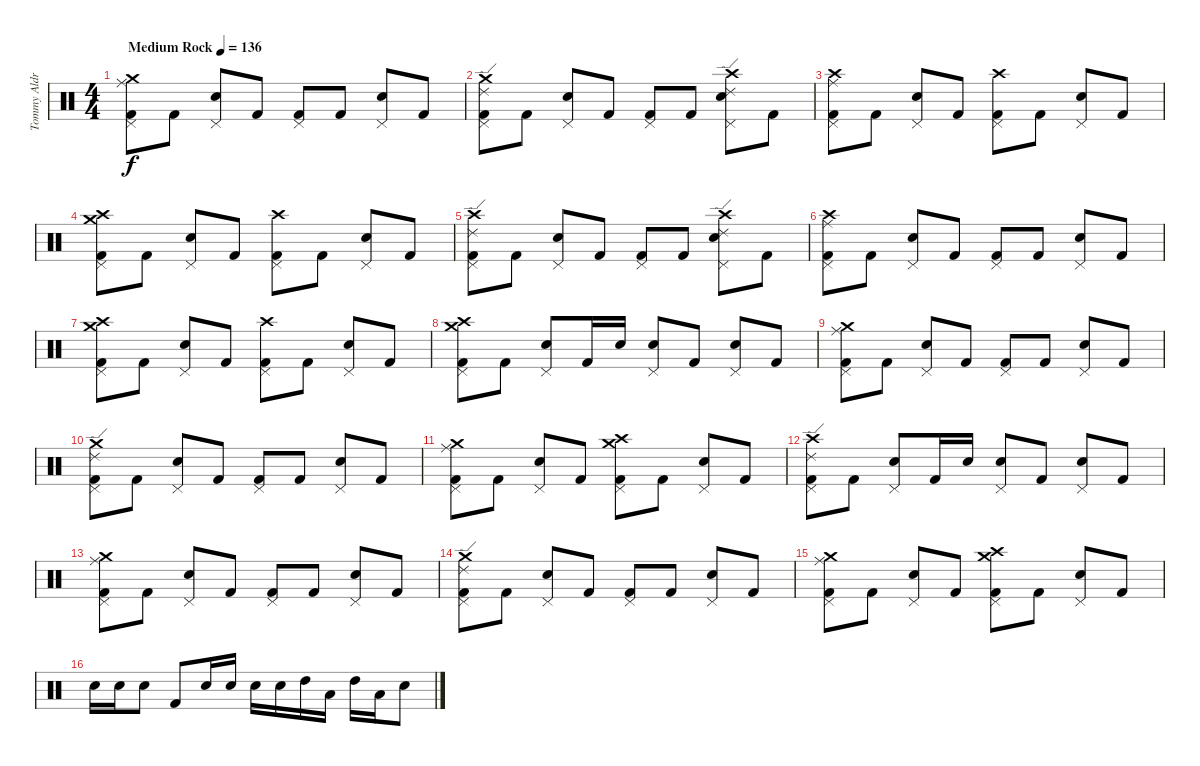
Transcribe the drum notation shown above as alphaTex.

\track ("Tommy Aldridge" "Tommy Aldr") {instrument percussion}
\staff {score}
\articulation defaults
\ts (4 4)
\tempo (136 "Medium Rock")
\clef neutral
\ks c
("Crash medium (hit)" "Ride (middle)" "Pedal Hi-Hat (hit)" "Kick (hit) 2").8{dy f} "Kick (hit) 2".8 ("Pedal Hi-Hat (hit)" "Snare (hit) 2").8 "Kick (hit) 2".8 ("Pedal Hi-Hat (hit)" "Kick (hit) 2").8 "Kick (hit) 2".8 ("Pedal Hi-Hat (hit)" "Snare (hit) 2").8 "Kick (hit) 2".8 |
("Crash medium (hit)" "Ride (edge) 2" "Pedal Hi-Hat (hit)" "Kick (hit) 2").8 "Kick (hit) 2".8 ("Pedal Hi-Hat (hit)" "Snare (hit) 2").8 "Kick (hit) 2".8 ("Pedal Hi-Hat (hit)" "Kick (hit) 2").8 "Kick (hit) 2".8 ("Ride (edge) 2" "Crash high (hit)" "Pedal Hi-Hat (hit)" "Snare (hit) 2").8 "Kick (hit) 2".8 |
("Ride (middle)" "Crash high (hit)" "Pedal Hi-Hat (hit)" "Kick (hit) 2").8 "Kick (hit) 2".8 ("Pedal Hi-Hat (hit)" "Snare (hit) 2").8 "Kick (hit) 2".8 ("Crash high (hit)" "Pedal Hi-Hat (hit)" "Kick (hit) 2").8 "Kick (hit) 2".8 ("Pedal Hi-Hat (hit)" "Snare (hit) 2").8 "Kick (hit) 2".8 |
("Crash medium (hit)" "Crash high (hit)" "Pedal Hi-Hat (hit)" "Kick (hit) 2").8 "Kick (hit) 2".8 ("Pedal Hi-Hat (hit)" "Snare (hit) 2").8 "Kick (hit) 2".8 ("Crash high (hit)" "Pedal Hi-Hat (hit)" "Kick (hit) 2").8 "Kick (hit) 2".8 ("Pedal Hi-Hat (hit)" "Snare (hit) 2").8 "Kick (hit) 2".8 |
("Ride (edge) 2" "Crash high (hit)" "Pedal Hi-Hat (hit)" "Kick (hit) 2").8 "Kick (hit) 2".8 ("Pedal Hi-Hat (hit)" "Snare (hit) 2").8 "Kick (hit) 2".8 ("Pedal Hi-Hat (hit)" "Kick (hit) 2").8 "Kick (hit) 2".8 ("Ride (edge) 2" "Crash high (hit)" "Pedal Hi-Hat (hit)" "Snare (hit) 2").8 "Kick (hit) 2".8 |
("Ride (middle)" "Crash high (hit)" "Pedal Hi-Hat (hit)" "Kick (hit) 2").8 "Kick (hit) 2".8 ("Pedal Hi-Hat (hit)" "Snare (hit) 2").8 "Kick (hit) 2".8 ("Pedal Hi-Hat (hit)" "Kick (hit) 2").8 "Kick (hit) 2".8 ("Pedal Hi-Hat (hit)" "Snare (hit) 2").8 "Kick (hit) 2".8 |
("Crash medium (hit)" "Crash high (hit)" "Pedal Hi-Hat (hit)" "Kick (hit) 2").8 "Kick (hit) 2".8 ("Pedal Hi-Hat (hit)" "Snare (hit) 2").8 "Kick (hit) 2".8 ("Crash high (hit)" "Pedal Hi-Hat (hit)" "Kick (hit) 2").8 "Kick (hit) 2".8 ("Pedal Hi-Hat (hit)" "Snare (hit) 2").8 "Kick (hit) 2".8 |
("Crash medium (hit)" "Crash high (hit)" "Pedal Hi-Hat (hit)" "Kick (hit) 2").8 "Kick (hit) 2".8 ("Pedal Hi-Hat (hit)" "Snare (hit) 2").8 "Kick (hit) 2".16 "Snare (hit) 2".16 ("Pedal Hi-Hat (hit)" "Snare (hit) 2").8 "Kick (hit) 2".8 ("Pedal Hi-Hat (hit)" "Snare (hit) 2").8 "Kick (hit) 2".8 |
("Crash medium (hit)" "Ride (middle)" "Pedal Hi-Hat (hit)" "Kick (hit) 2").8 "Kick (hit) 2".8 ("Pedal Hi-Hat (hit)" "Snare (hit) 2").8 "Kick (hit) 2".8 ("Pedal Hi-Hat (hit)" "Kick (hit) 2").8 "Kick (hit) 2".8 ("Pedal Hi-Hat (hit)" "Snare (hit) 2").8 "Kick (hit) 2".8 |
("Crash medium (hit)" "Ride (edge) 2" "Pedal Hi-Hat (hit)" "Kick (hit) 2").8 "Kick (hit) 2".8 ("Pedal Hi-Hat (hit)" "Snare (hit) 2").8 "Kick (hit) 2".8 ("Pedal Hi-Hat (hit)" "Kick (hit) 2").8 "Kick (hit) 2".8 ("Pedal Hi-Hat (hit)" "Snare (hit) 2").8 "Kick (hit) 2".8 |
("Crash medium (hit)" "Ride (middle)" "Pedal Hi-Hat (hit)" "Kick (hit) 2").8 "Kick (hit) 2".8 ("Pedal Hi-Hat (hit)" "Snare (hit) 2").8 "Kick (hit) 2".8 ("Crash medium (hit)" "Crash high (hit)" "Pedal Hi-Hat (hit)" "Kick (hit) 2").8 "Kick (hit) 2".8 ("Pedal Hi-Hat (hit)" "Snare (hit) 2").8 "Kick (hit) 2".8 |
("Ride (edge) 2" "Crash high (hit)" "Pedal Hi-Hat (hit)" "Kick (hit) 2").8 "Kick (hit) 2".8 ("Pedal Hi-Hat (hit)" "Snare (hit) 2").8 "Kick (hit) 2".16 "Snare (hit) 2".16 ("Pedal Hi-Hat (hit)" "Snare (hit) 2").8 "Kick (hit) 2".8 ("Pedal Hi-Hat (hit)" "Snare (hit) 2").8 "Kick (hit) 2".8 |
("Crash medium (hit)" "Ride (middle)" "Pedal Hi-Hat (hit)" "Kick (hit) 2").8 "Kick (hit) 2".8 ("Pedal Hi-Hat (hit)" "Snare (hit) 2").8 "Kick (hit) 2".8 ("Pedal Hi-Hat (hit)" "Kick (hit) 2").8 "Kick (hit) 2".8 ("Pedal Hi-Hat (hit)" "Snare (hit) 2").8 "Kick (hit) 2".8 |
("Crash medium (hit)" "Ride (edge) 2" "Pedal Hi-Hat (hit)" "Kick (hit) 2").8 "Kick (hit) 2".8 ("Pedal Hi-Hat (hit)" "Snare (hit) 2").8 "Kick (hit) 2".8 ("Pedal Hi-Hat (hit)" "Kick (hit) 2").8 "Kick (hit) 2".8 ("Pedal Hi-Hat (hit)" "Snare (hit) 2").8 "Kick (hit) 2".8 |
("Crash medium (hit)" "Ride (middle)" "Pedal Hi-Hat (hit)" "Kick (hit) 2").8 "Kick (hit) 2".8 ("Pedal Hi-Hat (hit)" "Snare (hit) 2").8 "Kick (hit) 2".8 ("Crash medium (hit)" "Crash high (hit)" "Pedal Hi-Hat (hit)" "Kick (hit) 2").8 "Kick (hit) 2".8 ("Pedal Hi-Hat (hit)" "Snare (hit) 2").8 "Kick (hit) 2".8 |
"Snare (hit) 2".16 "Snare (hit) 2".16 "Snare (hit) 2".8 "Kick (hit) 2".8 "Snare (hit) 2".16 "Snare (hit) 2".16 "Snare (hit) 2".16 "Snare (hit) 2".16 "High Tom (hit)".16 "Low Tom (hit)".16 "High Tom (hit)".16 "Low Tom (hit)".16 "Snare (hit) 2".8
